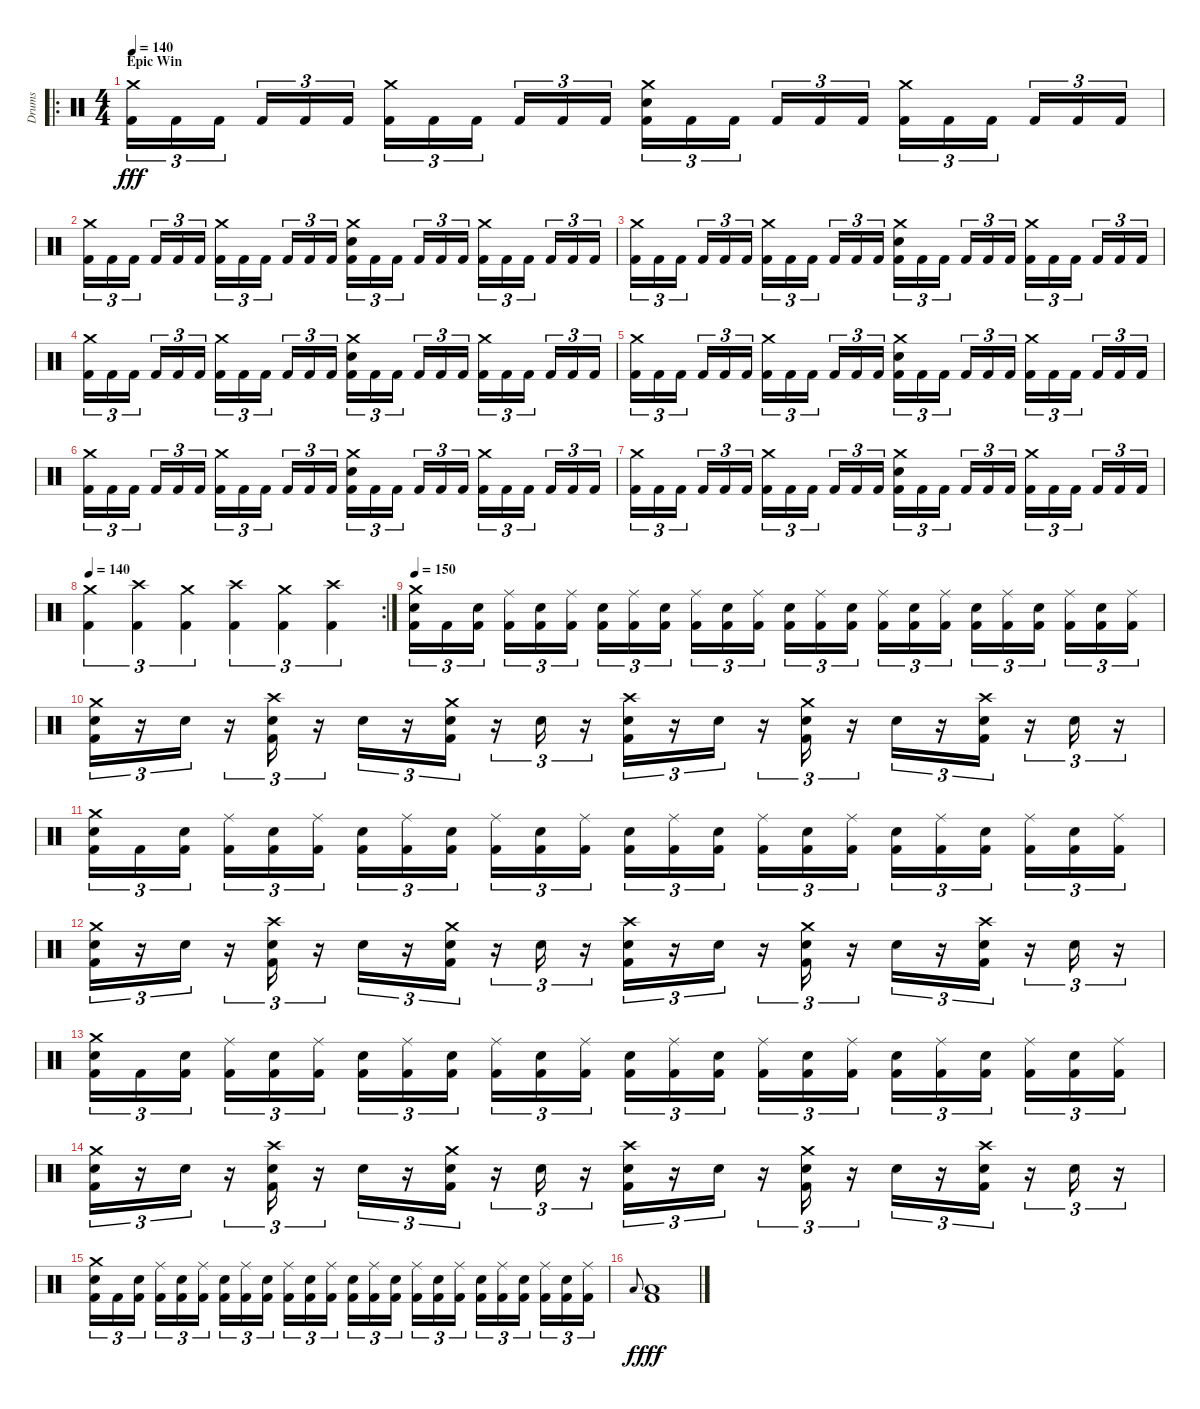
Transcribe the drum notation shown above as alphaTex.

\track ("Drums" "Drums") {instrument percussion}
\staff {score}
\articulation defaults
\ro
\ts (4 4)
\section ("" "Epic Win")
\tempo 140
\clef neutral
\ks c
("Crash medium (hit)" "Kick (hit) 2").16{tu (3 2) dy fff} "Kick (hit) 2".16{tu (3 2)} "Kick (hit) 2".16{tu (3 2) beam splitsecondary} "Kick (hit) 2".16{tu (3 2)} "Kick (hit) 2".16{tu (3 2)} "Kick (hit) 2".16{tu (3 2)} ("Crash medium (hit)" "Kick (hit) 2").16{tu (3 2)} "Kick (hit) 2".16{tu (3 2)} "Kick (hit) 2".16{tu (3 2) beam splitsecondary} "Kick (hit) 2".16{tu (3 2)} "Kick (hit) 2".16{tu (3 2)} "Kick (hit) 2".16{tu (3 2)} ("Crash medium (hit)" "Electric Snare (hit)" "Kick (hit) 2").16{tu (3 2)} "Kick (hit) 2".16{tu (3 2)} "Kick (hit) 2".16{tu (3 2) beam splitsecondary} "Kick (hit) 2".16{tu (3 2)} "Kick (hit) 2".16{tu (3 2)} "Kick (hit) 2".16{tu (3 2)} ("Crash medium (hit)" "Kick (hit) 2").16{tu (3 2)} "Kick (hit) 2".16{tu (3 2)} "Kick (hit) 2".16{tu (3 2) beam splitsecondary} "Kick (hit) 2".16{tu (3 2)} "Kick (hit) 2".16{tu (3 2)} "Kick (hit) 2".16{tu (3 2)} |
("Crash medium (hit)" "Kick (hit) 2").16{tu (3 2)} "Kick (hit) 2".16{tu (3 2)} "Kick (hit) 2".16{tu (3 2) beam splitsecondary} "Kick (hit) 2".16{tu (3 2)} "Kick (hit) 2".16{tu (3 2)} "Kick (hit) 2".16{tu (3 2)} ("Crash medium (hit)" "Kick (hit) 2").16{tu (3 2)} "Kick (hit) 2".16{tu (3 2)} "Kick (hit) 2".16{tu (3 2) beam splitsecondary} "Kick (hit) 2".16{tu (3 2)} "Kick (hit) 2".16{tu (3 2)} "Kick (hit) 2".16{tu (3 2)} ("Crash medium (hit)" "Electric Snare (hit)" "Kick (hit) 2").16{tu (3 2)} "Kick (hit) 2".16{tu (3 2)} "Kick (hit) 2".16{tu (3 2) beam splitsecondary} "Kick (hit) 2".16{tu (3 2)} "Kick (hit) 2".16{tu (3 2)} "Kick (hit) 2".16{tu (3 2)} ("Crash medium (hit)" "Kick (hit) 2").16{tu (3 2)} "Kick (hit) 2".16{tu (3 2)} "Kick (hit) 2".16{tu (3 2) beam splitsecondary} "Kick (hit) 2".16{tu (3 2)} "Kick (hit) 2".16{tu (3 2)} "Kick (hit) 2".16{tu (3 2)} |
("Crash medium (hit)" "Kick (hit) 2").16{tu (3 2)} "Kick (hit) 2".16{tu (3 2)} "Kick (hit) 2".16{tu (3 2) beam splitsecondary} "Kick (hit) 2".16{tu (3 2)} "Kick (hit) 2".16{tu (3 2)} "Kick (hit) 2".16{tu (3 2)} ("Crash medium (hit)" "Kick (hit) 2").16{tu (3 2)} "Kick (hit) 2".16{tu (3 2)} "Kick (hit) 2".16{tu (3 2) beam splitsecondary} "Kick (hit) 2".16{tu (3 2)} "Kick (hit) 2".16{tu (3 2)} "Kick (hit) 2".16{tu (3 2)} ("Crash medium (hit)" "Electric Snare (hit)" "Kick (hit) 2").16{tu (3 2)} "Kick (hit) 2".16{tu (3 2)} "Kick (hit) 2".16{tu (3 2) beam splitsecondary} "Kick (hit) 2".16{tu (3 2)} "Kick (hit) 2".16{tu (3 2)} "Kick (hit) 2".16{tu (3 2)} ("Crash medium (hit)" "Kick (hit) 2").16{tu (3 2)} "Kick (hit) 2".16{tu (3 2)} "Kick (hit) 2".16{tu (3 2) beam splitsecondary} "Kick (hit) 2".16{tu (3 2)} "Kick (hit) 2".16{tu (3 2)} "Kick (hit) 2".16{tu (3 2)} |
("Crash medium (hit)" "Kick (hit) 2").16{tu (3 2)} "Kick (hit) 2".16{tu (3 2)} "Kick (hit) 2".16{tu (3 2) beam splitsecondary} "Kick (hit) 2".16{tu (3 2)} "Kick (hit) 2".16{tu (3 2)} "Kick (hit) 2".16{tu (3 2)} ("Crash medium (hit)" "Kick (hit) 2").16{tu (3 2)} "Kick (hit) 2".16{tu (3 2)} "Kick (hit) 2".16{tu (3 2) beam splitsecondary} "Kick (hit) 2".16{tu (3 2)} "Kick (hit) 2".16{tu (3 2)} "Kick (hit) 2".16{tu (3 2)} ("Crash medium (hit)" "Electric Snare (hit)" "Kick (hit) 2").16{tu (3 2)} "Kick (hit) 2".16{tu (3 2)} "Kick (hit) 2".16{tu (3 2) beam splitsecondary} "Kick (hit) 2".16{tu (3 2)} "Kick (hit) 2".16{tu (3 2)} "Kick (hit) 2".16{tu (3 2)} ("Crash medium (hit)" "Kick (hit) 2").16{tu (3 2)} "Kick (hit) 2".16{tu (3 2)} "Kick (hit) 2".16{tu (3 2) beam splitsecondary} "Kick (hit) 2".16{tu (3 2)} "Kick (hit) 2".16{tu (3 2)} "Kick (hit) 2".16{tu (3 2)} |
("Crash medium (hit)" "Kick (hit) 2").16{tu (3 2)} "Kick (hit) 2".16{tu (3 2)} "Kick (hit) 2".16{tu (3 2) beam splitsecondary} "Kick (hit) 2".16{tu (3 2)} "Kick (hit) 2".16{tu (3 2)} "Kick (hit) 2".16{tu (3 2)} ("Crash medium (hit)" "Kick (hit) 2").16{tu (3 2)} "Kick (hit) 2".16{tu (3 2)} "Kick (hit) 2".16{tu (3 2) beam splitsecondary} "Kick (hit) 2".16{tu (3 2)} "Kick (hit) 2".16{tu (3 2)} "Kick (hit) 2".16{tu (3 2)} ("Crash medium (hit)" "Electric Snare (hit)" "Kick (hit) 2").16{tu (3 2)} "Kick (hit) 2".16{tu (3 2)} "Kick (hit) 2".16{tu (3 2) beam splitsecondary} "Kick (hit) 2".16{tu (3 2)} "Kick (hit) 2".16{tu (3 2)} "Kick (hit) 2".16{tu (3 2)} ("Crash medium (hit)" "Kick (hit) 2").16{tu (3 2)} "Kick (hit) 2".16{tu (3 2)} "Kick (hit) 2".16{tu (3 2) beam splitsecondary} "Kick (hit) 2".16{tu (3 2)} "Kick (hit) 2".16{tu (3 2)} "Kick (hit) 2".16{tu (3 2)} |
("Crash medium (hit)" "Kick (hit) 2").16{tu (3 2)} "Kick (hit) 2".16{tu (3 2)} "Kick (hit) 2".16{tu (3 2) beam splitsecondary} "Kick (hit) 2".16{tu (3 2)} "Kick (hit) 2".16{tu (3 2)} "Kick (hit) 2".16{tu (3 2)} ("Crash medium (hit)" "Kick (hit) 2").16{tu (3 2)} "Kick (hit) 2".16{tu (3 2)} "Kick (hit) 2".16{tu (3 2) beam splitsecondary} "Kick (hit) 2".16{tu (3 2)} "Kick (hit) 2".16{tu (3 2)} "Kick (hit) 2".16{tu (3 2)} ("Crash medium (hit)" "Electric Snare (hit)" "Kick (hit) 2").16{tu (3 2)} "Kick (hit) 2".16{tu (3 2)} "Kick (hit) 2".16{tu (3 2) beam splitsecondary} "Kick (hit) 2".16{tu (3 2)} "Kick (hit) 2".16{tu (3 2)} "Kick (hit) 2".16{tu (3 2)} ("Crash medium (hit)" "Kick (hit) 2").16{tu (3 2)} "Kick (hit) 2".16{tu (3 2)} "Kick (hit) 2".16{tu (3 2) beam splitsecondary} "Kick (hit) 2".16{tu (3 2)} "Kick (hit) 2".16{tu (3 2)} "Kick (hit) 2".16{tu (3 2)} |
("Crash medium (hit)" "Kick (hit) 2").16{tu (3 2)} "Kick (hit) 2".16{tu (3 2)} "Kick (hit) 2".16{tu (3 2) beam splitsecondary} "Kick (hit) 2".16{tu (3 2)} "Kick (hit) 2".16{tu (3 2)} "Kick (hit) 2".16{tu (3 2)} ("Crash medium (hit)" "Kick (hit) 2").16{tu (3 2)} "Kick (hit) 2".16{tu (3 2)} "Kick (hit) 2".16{tu (3 2) beam splitsecondary} "Kick (hit) 2".16{tu (3 2)} "Kick (hit) 2".16{tu (3 2)} "Kick (hit) 2".16{tu (3 2)} ("Crash medium (hit)" "Electric Snare (hit)" "Kick (hit) 2").16{tu (3 2)} "Kick (hit) 2".16{tu (3 2)} "Kick (hit) 2".16{tu (3 2) beam splitsecondary} "Kick (hit) 2".16{tu (3 2)} "Kick (hit) 2".16{tu (3 2)} "Kick (hit) 2".16{tu (3 2)} ("Crash medium (hit)" "Kick (hit) 2").16{tu (3 2)} "Kick (hit) 2".16{tu (3 2)} "Kick (hit) 2".16{tu (3 2) beam splitsecondary} "Kick (hit) 2".16{tu (3 2)} "Kick (hit) 2".16{tu (3 2)} "Kick (hit) 2".16{tu (3 2)} |
\rc 2
\tempo 140
("Crash medium (hit)" "Kick (hit) 2").4{tu (3 2)} ("Crash high (hit)" "Kick (hit) 2").4{tu (3 2)} ("Crash medium (hit)" "Kick (hit) 2").4{tu (3 2)} ("Crash high (hit)" "Kick (hit) 2").4{tu (3 2)} ("Crash medium (hit)" "Kick (hit) 2").4{tu (3 2)} ("Crash high (hit)" "Kick (hit) 2").4{tu (3 2)} |
\tempo 150
("Crash medium (hit)" "Electric Snare (hit)" "Kick (hit) 2").16{tu (3 2)} "Kick (hit) 2".16{tu (3 2)} ("Electric Snare (hit)" "Kick (hit) 2").16{tu (3 2) beam splitsecondary} ("Ride (middle)" "Kick (hit) 2").16{tu (3 2)} ("Electric Snare (hit)" "Kick (hit) 2").16{tu (3 2)} ("Ride (middle)" "Kick (hit) 2").16{tu (3 2)} ("Electric Snare (hit)" "Kick (hit) 2").16{tu (3 2)} ("Ride (middle)" "Kick (hit) 2").16{tu (3 2)} ("Electric Snare (hit)" "Kick (hit) 2").16{tu (3 2) beam splitsecondary} ("Ride (middle)" "Kick (hit) 2").16{tu (3 2)} ("Electric Snare (hit)" "Kick (hit) 2").16{tu (3 2)} ("Ride (middle)" "Kick (hit) 2").16{tu (3 2)} ("Electric Snare (hit)" "Kick (hit) 2").16{tu (3 2)} ("Ride (middle)" "Kick (hit) 2").16{tu (3 2)} ("Electric Snare (hit)" "Kick (hit) 2").16{tu (3 2) beam splitsecondary} ("Ride (middle)" "Kick (hit) 2").16{tu (3 2)} ("Electric Snare (hit)" "Kick (hit) 2").16{tu (3 2)} ("Ride (middle)" "Kick (hit) 2").16{tu (3 2)} ("Electric Snare (hit)" "Kick (hit) 2").16{tu (3 2)} ("Ride (middle)" "Kick (hit) 2").16{tu (3 2)} ("Electric Snare (hit)" "Kick (hit) 2").16{tu (3 2) beam splitsecondary} ("Ride (middle)" "Kick (hit) 2").16{tu (3 2)} ("Electric Snare (hit)" "Kick (hit) 2").16{tu (3 2)} ("Ride (middle)" "Kick (hit) 2").16{tu (3 2)} |
("Crash medium (hit)" "Electric Snare (hit)" "Kick (hit) 2").16{tu (3 2)} r.16{tu (3 2)} "Electric Snare (hit)".16{tu (3 2)} r.16{tu (3 2)} ("Crash high (hit)" "Electric Snare (hit)" "Kick (hit) 2").16{tu (3 2)} r.16{tu (3 2)} "Electric Snare (hit)".16{tu (3 2)} r.16{tu (3 2)} ("Crash medium (hit)" "Electric Snare (hit)" "Kick (hit) 2").16{tu (3 2)} r.16{tu (3 2)} "Electric Snare (hit)".16{tu (3 2)} r.16{tu (3 2)} ("Crash high (hit)" "Electric Snare (hit)" "Kick (hit) 2").16{tu (3 2)} r.16{tu (3 2)} "Electric Snare (hit)".16{tu (3 2)} r.16{tu (3 2)} ("Crash medium (hit)" "Electric Snare (hit)" "Kick (hit) 2").16{tu (3 2)} r.16{tu (3 2)} "Electric Snare (hit)".16{tu (3 2)} r.16{tu (3 2)} ("Crash high (hit)" "Electric Snare (hit)" "Kick (hit) 2").16{tu (3 2)} r.16{tu (3 2)} "Electric Snare (hit)".16{tu (3 2)} r.16{tu (3 2)} |
("Crash medium (hit)" "Electric Snare (hit)" "Kick (hit) 2").16{tu (3 2)} "Kick (hit) 2".16{tu (3 2)} ("Electric Snare (hit)" "Kick (hit) 2").16{tu (3 2) beam splitsecondary} ("Ride (middle)" "Kick (hit) 2").16{tu (3 2)} ("Electric Snare (hit)" "Kick (hit) 2").16{tu (3 2)} ("Ride (middle)" "Kick (hit) 2").16{tu (3 2)} ("Electric Snare (hit)" "Kick (hit) 2").16{tu (3 2)} ("Ride (middle)" "Kick (hit) 2").16{tu (3 2)} ("Electric Snare (hit)" "Kick (hit) 2").16{tu (3 2) beam splitsecondary} ("Ride (middle)" "Kick (hit) 2").16{tu (3 2)} ("Electric Snare (hit)" "Kick (hit) 2").16{tu (3 2)} ("Ride (middle)" "Kick (hit) 2").16{tu (3 2)} ("Electric Snare (hit)" "Kick (hit) 2").16{tu (3 2)} ("Ride (middle)" "Kick (hit) 2").16{tu (3 2)} ("Electric Snare (hit)" "Kick (hit) 2").16{tu (3 2) beam splitsecondary} ("Ride (middle)" "Kick (hit) 2").16{tu (3 2)} ("Electric Snare (hit)" "Kick (hit) 2").16{tu (3 2)} ("Ride (middle)" "Kick (hit) 2").16{tu (3 2)} ("Electric Snare (hit)" "Kick (hit) 2").16{tu (3 2)} ("Ride (middle)" "Kick (hit) 2").16{tu (3 2)} ("Electric Snare (hit)" "Kick (hit) 2").16{tu (3 2) beam splitsecondary} ("Ride (middle)" "Kick (hit) 2").16{tu (3 2)} ("Electric Snare (hit)" "Kick (hit) 2").16{tu (3 2)} ("Ride (middle)" "Kick (hit) 2").16{tu (3 2)} |
("Crash medium (hit)" "Electric Snare (hit)" "Kick (hit) 2").16{tu (3 2)} r.16{tu (3 2)} "Electric Snare (hit)".16{tu (3 2)} r.16{tu (3 2)} ("Crash high (hit)" "Electric Snare (hit)" "Kick (hit) 2").16{tu (3 2)} r.16{tu (3 2)} "Electric Snare (hit)".16{tu (3 2)} r.16{tu (3 2)} ("Crash medium (hit)" "Electric Snare (hit)" "Kick (hit) 2").16{tu (3 2)} r.16{tu (3 2)} "Electric Snare (hit)".16{tu (3 2)} r.16{tu (3 2)} ("Crash high (hit)" "Electric Snare (hit)" "Kick (hit) 2").16{tu (3 2)} r.16{tu (3 2)} "Electric Snare (hit)".16{tu (3 2)} r.16{tu (3 2)} ("Crash medium (hit)" "Electric Snare (hit)" "Kick (hit) 2").16{tu (3 2)} r.16{tu (3 2)} "Electric Snare (hit)".16{tu (3 2)} r.16{tu (3 2)} ("Crash high (hit)" "Electric Snare (hit)" "Kick (hit) 2").16{tu (3 2)} r.16{tu (3 2)} "Electric Snare (hit)".16{tu (3 2)} r.16{tu (3 2)} |
("Crash medium (hit)" "Electric Snare (hit)" "Kick (hit) 2").16{tu (3 2)} "Kick (hit) 2".16{tu (3 2)} ("Electric Snare (hit)" "Kick (hit) 2").16{tu (3 2) beam splitsecondary} ("Ride (middle)" "Kick (hit) 2").16{tu (3 2)} ("Electric Snare (hit)" "Kick (hit) 2").16{tu (3 2)} ("Ride (middle)" "Kick (hit) 2").16{tu (3 2)} ("Electric Snare (hit)" "Kick (hit) 2").16{tu (3 2)} ("Ride (middle)" "Kick (hit) 2").16{tu (3 2)} ("Electric Snare (hit)" "Kick (hit) 2").16{tu (3 2) beam splitsecondary} ("Ride (middle)" "Kick (hit) 2").16{tu (3 2)} ("Electric Snare (hit)" "Kick (hit) 2").16{tu (3 2)} ("Ride (middle)" "Kick (hit) 2").16{tu (3 2)} ("Electric Snare (hit)" "Kick (hit) 2").16{tu (3 2)} ("Ride (middle)" "Kick (hit) 2").16{tu (3 2)} ("Electric Snare (hit)" "Kick (hit) 2").16{tu (3 2) beam splitsecondary} ("Ride (middle)" "Kick (hit) 2").16{tu (3 2)} ("Electric Snare (hit)" "Kick (hit) 2").16{tu (3 2)} ("Ride (middle)" "Kick (hit) 2").16{tu (3 2)} ("Electric Snare (hit)" "Kick (hit) 2").16{tu (3 2)} ("Ride (middle)" "Kick (hit) 2").16{tu (3 2)} ("Electric Snare (hit)" "Kick (hit) 2").16{tu (3 2) beam splitsecondary} ("Ride (middle)" "Kick (hit) 2").16{tu (3 2)} ("Electric Snare (hit)" "Kick (hit) 2").16{tu (3 2)} ("Ride (middle)" "Kick (hit) 2").16{tu (3 2)} |
("Crash medium (hit)" "Electric Snare (hit)" "Kick (hit) 2").16{tu (3 2)} r.16{tu (3 2)} "Electric Snare (hit)".16{tu (3 2)} r.16{tu (3 2)} ("Crash high (hit)" "Electric Snare (hit)" "Kick (hit) 2").16{tu (3 2)} r.16{tu (3 2)} "Electric Snare (hit)".16{tu (3 2)} r.16{tu (3 2)} ("Crash medium (hit)" "Electric Snare (hit)" "Kick (hit) 2").16{tu (3 2)} r.16{tu (3 2)} "Electric Snare (hit)".16{tu (3 2)} r.16{tu (3 2)} ("Crash high (hit)" "Electric Snare (hit)" "Kick (hit) 2").16{tu (3 2)} r.16{tu (3 2)} "Electric Snare (hit)".16{tu (3 2)} r.16{tu (3 2)} ("Crash medium (hit)" "Electric Snare (hit)" "Kick (hit) 2").16{tu (3 2)} r.16{tu (3 2)} "Electric Snare (hit)".16{tu (3 2)} r.16{tu (3 2)} ("Crash high (hit)" "Electric Snare (hit)" "Kick (hit) 2").16{tu (3 2)} r.16{tu (3 2)} "Electric Snare (hit)".16{tu (3 2)} r.16{tu (3 2)} |
("Crash medium (hit)" "Electric Snare (hit)" "Kick (hit) 2").16{tu (3 2)} "Kick (hit) 2".16{tu (3 2)} ("Electric Snare (hit)" "Kick (hit) 2").16{tu (3 2) beam splitsecondary} ("Ride (middle)" "Kick (hit) 2").16{tu (3 2)} ("Electric Snare (hit)" "Kick (hit) 2").16{tu (3 2)} ("Ride (middle)" "Kick (hit) 2").16{tu (3 2)} ("Electric Snare (hit)" "Kick (hit) 2").16{tu (3 2)} ("Ride (middle)" "Kick (hit) 2").16{tu (3 2)} ("Electric Snare (hit)" "Kick (hit) 2").16{tu (3 2) beam splitsecondary} ("Ride (middle)" "Kick (hit) 2").16{tu (3 2)} ("Electric Snare (hit)" "Kick (hit) 2").16{tu (3 2)} ("Ride (middle)" "Kick (hit) 2").16{tu (3 2)} ("Electric Snare (hit)" "Kick (hit) 2").16{tu (3 2)} ("Ride (middle)" "Kick (hit) 2").16{tu (3 2)} ("Electric Snare (hit)" "Kick (hit) 2").16{tu (3 2) beam splitsecondary} ("Ride (middle)" "Kick (hit) 2").16{tu (3 2)} ("Electric Snare (hit)" "Kick (hit) 2").16{tu (3 2)} ("Ride (middle)" "Kick (hit) 2").16{tu (3 2)} ("Electric Snare (hit)" "Kick (hit) 2").16{tu (3 2)} ("Ride (middle)" "Kick (hit) 2").16{tu (3 2)} ("Electric Snare (hit)" "Kick (hit) 2").16{tu (3 2) beam splitsecondary} ("Ride (middle)" "Kick (hit) 2").16{tu (3 2)} ("Electric Snare (hit)" "Kick (hit) 2").16{tu (3 2)} ("Ride (middle)" "Kick (hit) 2").16{tu (3 2)} |
"Low Floor Tom (hit)".8{gr onbeat dy f} ("Low Floor Tom (hit)" "Kick (hit) 2").1{dy fff}
